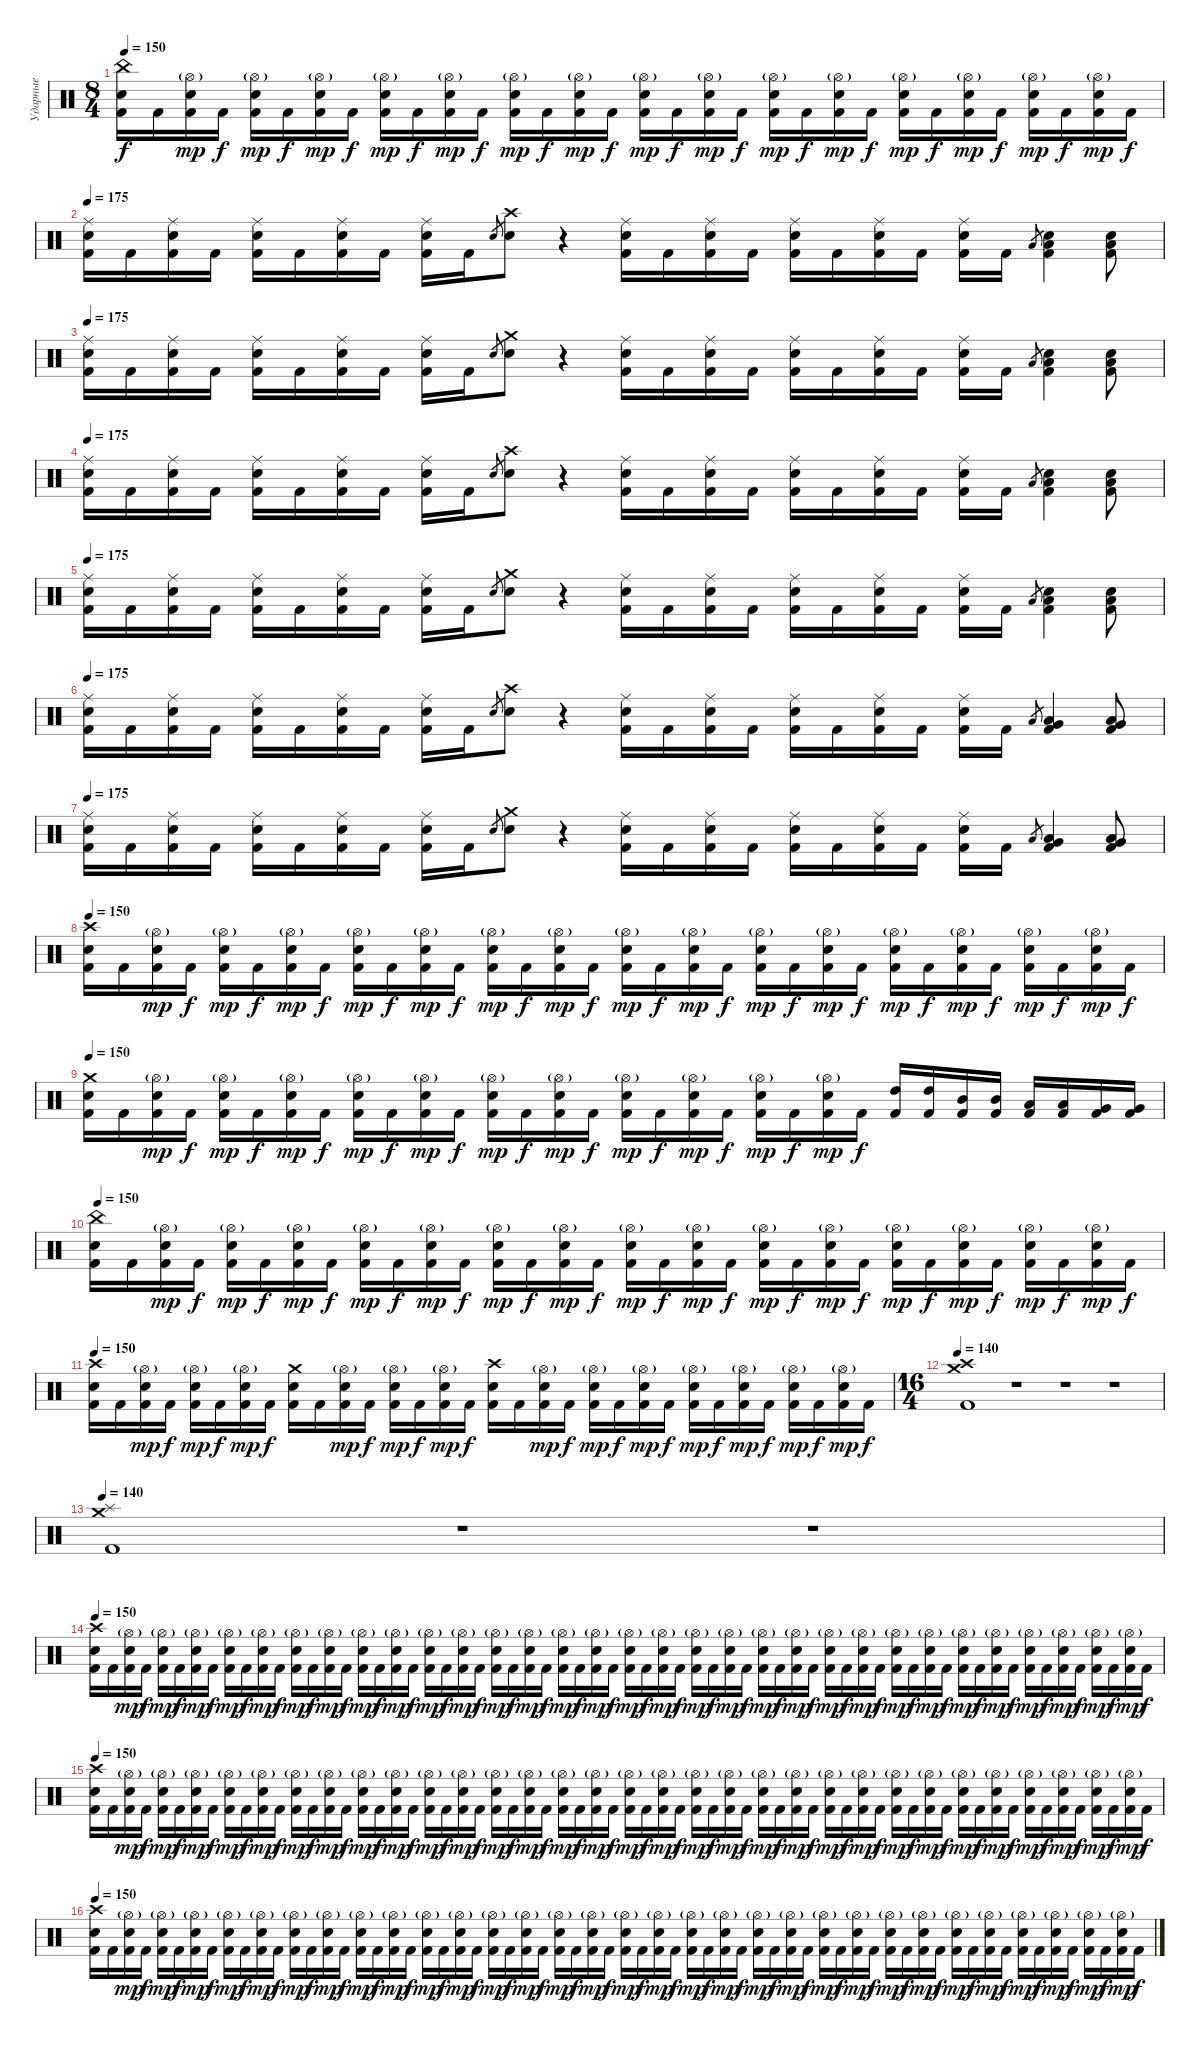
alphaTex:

\track ("Ударные" "Ударные") {instrument percussion}
\staff {score}
\articulation defaults
\ts (8 4)
\tempo 150
\clef neutral
\ks c
("China (hit)" "Electric Snare (hit)" "Kick (hit) 2").16{dy f} "Kick (hit) 2".16 ("Hi-Hat (open)"{g} "Electric Snare (hit)" "Kick (hit) 2").16{dy mp} "Kick (hit) 2".16{dy f} ("Hi-Hat (open)"{g} "Electric Snare (hit)" "Kick (hit) 2").16{dy mp} "Kick (hit) 2".16{dy f} ("Hi-Hat (open)"{g} "Electric Snare (hit)" "Kick (hit) 2").16{dy mp} "Kick (hit) 2".16{dy f} ("Hi-Hat (open)"{g} "Electric Snare (hit)" "Kick (hit) 2").16{dy mp} "Kick (hit) 2".16{dy f} ("Hi-Hat (open)"{g} "Electric Snare (hit)" "Kick (hit) 2").16{dy mp} "Kick (hit) 2".16{dy f} ("Hi-Hat (open)"{g} "Electric Snare (hit)" "Kick (hit) 2").16{dy mp} "Kick (hit) 2".16{dy f} ("Hi-Hat (open)"{g} "Electric Snare (hit)" "Kick (hit) 2").16{dy mp} "Kick (hit) 2".16{dy f} ("Hi-Hat (open)"{g} "Electric Snare (hit)" "Kick (hit) 2").16{dy mp} "Kick (hit) 2".16{dy f} ("Hi-Hat (open)"{g} "Electric Snare (hit)" "Kick (hit) 2").16{dy mp} "Kick (hit) 2".16{dy f} ("Hi-Hat (open)"{g} "Electric Snare (hit)" "Kick (hit) 2").16{dy mp} "Kick (hit) 2".16{dy f} ("Hi-Hat (open)"{g} "Electric Snare (hit)" "Kick (hit) 2").16{dy mp} "Kick (hit) 2".16{dy f} ("Hi-Hat (open)"{g} "Electric Snare (hit)" "Kick (hit) 2").16{dy mp} "Kick (hit) 2".16{dy f} ("Hi-Hat (open)"{g} "Electric Snare (hit)" "Kick (hit) 2").16{dy mp} "Kick (hit) 2".16{dy f} ("Hi-Hat (open)"{g} "Electric Snare (hit)" "Kick (hit) 2").16{dy mp} "Kick (hit) 2".16{dy f} ("Hi-Hat (open)"{g} "Electric Snare (hit)" "Kick (hit) 2").16{dy mp} "Kick (hit) 2".16{dy f} |
\tempo 175
("Electric Snare (hit)" "Ride (middle)" "Kick (hit) 2").16 "Kick (hit) 2".16 ("Electric Snare (hit)" "Ride (middle)" "Kick (hit) 2").16 "Kick (hit) 2".16 ("Electric Snare (hit)" "Ride (middle)" "Kick (hit) 2").16 "Kick (hit) 2".16 ("Electric Snare (hit)" "Ride (middle)" "Kick (hit) 2").16 "Kick (hit) 2".16 ("Electric Snare (hit)" "Ride (middle)" "Kick (hit) 2").16 "Kick (hit) 2".16 "Electric Snare (hit)".8{gr} ("Crash high (hit)" "Electric Snare (hit)").8 r.4 ("Electric Snare (hit)" "Ride (middle)" "Kick (hit) 2").16 "Kick (hit) 2".16 ("Electric Snare (hit)" "Ride (middle)" "Kick (hit) 2").16 "Kick (hit) 2".16 ("Electric Snare (hit)" "Ride (middle)" "Kick (hit) 2").16 "Kick (hit) 2".16 ("Electric Snare (hit)" "Ride (middle)" "Kick (hit) 2").16 "Kick (hit) 2".16 ("Electric Snare (hit)" "Ride (middle)" "Kick (hit) 2").16 "Kick (hit) 2".16 "Low Tom (hit)".8{gr} ("Electric Snare (hit)" "Low Tom (hit)" "Kick (hit) 2").4 ("Electric Snare (hit)" "Low Tom (hit)" "Kick (hit) 2").8 |
\tempo 175
("Electric Snare (hit)" "Ride (middle)" "Kick (hit) 2").16 "Kick (hit) 2".16 ("Electric Snare (hit)" "Ride (middle)" "Kick (hit) 2").16 "Kick (hit) 2".16 ("Electric Snare (hit)" "Ride (middle)" "Kick (hit) 2").16 "Kick (hit) 2".16 ("Electric Snare (hit)" "Ride (middle)" "Kick (hit) 2").16 "Kick (hit) 2".16 ("Electric Snare (hit)" "Ride (middle)" "Kick (hit) 2").16 "Kick (hit) 2".16 "Electric Snare (hit)".8{gr} ("Crash medium (hit)" "Electric Snare (hit)").8 r.4 ("Electric Snare (hit)" "Ride (middle)" "Kick (hit) 2").16 "Kick (hit) 2".16 ("Electric Snare (hit)" "Ride (middle)" "Kick (hit) 2").16 "Kick (hit) 2".16 ("Electric Snare (hit)" "Ride (middle)" "Kick (hit) 2").16 "Kick (hit) 2".16 ("Electric Snare (hit)" "Ride (middle)" "Kick (hit) 2").16 "Kick (hit) 2".16 ("Electric Snare (hit)" "Ride (middle)" "Kick (hit) 2").16 "Kick (hit) 2".16 "Low Tom (hit)".8{gr} ("Electric Snare (hit)" "Low Tom (hit)" "Kick (hit) 2").4 ("Electric Snare (hit)" "Low Tom (hit)" "Kick (hit) 2").8 |
\tempo 175
("Electric Snare (hit)" "Ride (middle)" "Kick (hit) 2").16 "Kick (hit) 2".16 ("Electric Snare (hit)" "Ride (middle)" "Kick (hit) 2").16 "Kick (hit) 2".16 ("Electric Snare (hit)" "Ride (middle)" "Kick (hit) 2").16 "Kick (hit) 2".16 ("Electric Snare (hit)" "Ride (middle)" "Kick (hit) 2").16 "Kick (hit) 2".16 ("Electric Snare (hit)" "Ride (middle)" "Kick (hit) 2").16 "Kick (hit) 2".16 "Electric Snare (hit)".8{gr} ("Crash high (hit)" "Electric Snare (hit)").8 r.4 ("Electric Snare (hit)" "Ride (middle)" "Kick (hit) 2").16 "Kick (hit) 2".16 ("Electric Snare (hit)" "Ride (middle)" "Kick (hit) 2").16 "Kick (hit) 2".16 ("Electric Snare (hit)" "Ride (middle)" "Kick (hit) 2").16 "Kick (hit) 2".16 ("Electric Snare (hit)" "Ride (middle)" "Kick (hit) 2").16 "Kick (hit) 2".16 ("Electric Snare (hit)" "Ride (middle)" "Kick (hit) 2").16 "Kick (hit) 2".16 "Low Tom (hit)".8{gr} ("Electric Snare (hit)" "Low Tom (hit)" "Kick (hit) 2").4 ("Electric Snare (hit)" "Low Tom (hit)" "Kick (hit) 2").8 |
\tempo 175
("Electric Snare (hit)" "Ride (middle)" "Kick (hit) 2").16 "Kick (hit) 2".16 ("Electric Snare (hit)" "Ride (middle)" "Kick (hit) 2").16 "Kick (hit) 2".16 ("Electric Snare (hit)" "Ride (middle)" "Kick (hit) 2").16 "Kick (hit) 2".16 ("Electric Snare (hit)" "Ride (middle)" "Kick (hit) 2").16 "Kick (hit) 2".16 ("Electric Snare (hit)" "Ride (middle)" "Kick (hit) 2").16 "Kick (hit) 2".16 "Electric Snare (hit)".8{gr} ("Crash medium (hit)" "Electric Snare (hit)").8 r.4 ("Electric Snare (hit)" "Ride (middle)" "Kick (hit) 2").16 "Kick (hit) 2".16 ("Electric Snare (hit)" "Ride (middle)" "Kick (hit) 2").16 "Kick (hit) 2".16 ("Electric Snare (hit)" "Ride (middle)" "Kick (hit) 2").16 "Kick (hit) 2".16 ("Electric Snare (hit)" "Ride (middle)" "Kick (hit) 2").16 "Kick (hit) 2".16 ("Electric Snare (hit)" "Ride (middle)" "Kick (hit) 2").16 "Kick (hit) 2".16 "Low Tom (hit)".8{gr} ("Electric Snare (hit)" "Low Tom (hit)" "Kick (hit) 2").4 ("Electric Snare (hit)" "Low Tom (hit)" "Kick (hit) 2").8 |
\tempo 175
("Electric Snare (hit)" "Ride (middle)" "Kick (hit) 2").16 "Kick (hit) 2".16 ("Electric Snare (hit)" "Ride (middle)" "Kick (hit) 2").16 "Kick (hit) 2".16 ("Electric Snare (hit)" "Ride (middle)" "Kick (hit) 2").16 "Kick (hit) 2".16 ("Electric Snare (hit)" "Ride (middle)" "Kick (hit) 2").16 "Kick (hit) 2".16 ("Electric Snare (hit)" "Ride (middle)" "Kick (hit) 2").16 "Kick (hit) 2".16 "Electric Snare (hit)".8{gr} ("Crash high (hit)" "Electric Snare (hit)").8 r.4 ("Electric Snare (hit)" "Ride (middle)" "Kick (hit) 2").16 "Kick (hit) 2".16 ("Electric Snare (hit)" "Ride (middle)" "Kick (hit) 2").16 "Kick (hit) 2".16 ("Electric Snare (hit)" "Ride (middle)" "Kick (hit) 2").16 "Kick (hit) 2".16 ("Electric Snare (hit)" "Ride (middle)" "Kick (hit) 2").16 "Kick (hit) 2".16 ("Electric Snare (hit)" "Ride (middle)" "Kick (hit) 2").16 "Kick (hit) 2".16 "Low Tom (hit)".8{gr} ("Very Low Tom (hit)" "Low Tom (hit)" "Kick (hit) 2").4 ("Very Low Tom (hit)" "Low Tom (hit)" "Kick (hit) 2").8 |
\tempo 175
("Electric Snare (hit)" "Ride (middle)" "Kick (hit) 2").16 "Kick (hit) 2".16 ("Electric Snare (hit)" "Ride (middle)" "Kick (hit) 2").16 "Kick (hit) 2".16 ("Electric Snare (hit)" "Ride (middle)" "Kick (hit) 2").16 "Kick (hit) 2".16 ("Electric Snare (hit)" "Ride (middle)" "Kick (hit) 2").16 "Kick (hit) 2".16 ("Electric Snare (hit)" "Ride (middle)" "Kick (hit) 2").16 "Kick (hit) 2".16 "Electric Snare (hit)".8{gr} ("Crash medium (hit)" "Electric Snare (hit)").8 r.4 ("Electric Snare (hit)" "Ride (middle)" "Kick (hit) 2").16 "Kick (hit) 2".16 ("Electric Snare (hit)" "Ride (middle)" "Kick (hit) 2").16 "Kick (hit) 2".16 ("Electric Snare (hit)" "Ride (middle)" "Kick (hit) 2").16 "Kick (hit) 2".16 ("Electric Snare (hit)" "Ride (middle)" "Kick (hit) 2").16 "Kick (hit) 2".16 ("Electric Snare (hit)" "Ride (middle)" "Kick (hit) 2").16 "Kick (hit) 2".16 "Low Tom (hit)".8{gr} ("Very Low Tom (hit)" "Low Tom (hit)" "Kick (hit) 2").4 ("Very Low Tom (hit)" "Low Tom (hit)" "Kick (hit) 2").8 |
\tempo 150
("Crash high (hit)" "Electric Snare (hit)" "Kick (hit) 2").16 "Kick (hit) 2".16 ("Hi-Hat (open)"{g} "Electric Snare (hit)" "Kick (hit) 2").16{dy mp} "Kick (hit) 2".16{dy f} ("Hi-Hat (open)"{g} "Electric Snare (hit)" "Kick (hit) 2").16{dy mp} "Kick (hit) 2".16{dy f} ("Hi-Hat (open)"{g} "Electric Snare (hit)" "Kick (hit) 2").16{dy mp} "Kick (hit) 2".16{dy f} ("Hi-Hat (open)"{g} "Electric Snare (hit)" "Kick (hit) 2").16{dy mp} "Kick (hit) 2".16{dy f} ("Hi-Hat (open)"{g} "Electric Snare (hit)" "Kick (hit) 2").16{dy mp} "Kick (hit) 2".16{dy f} ("Hi-Hat (open)"{g} "Electric Snare (hit)" "Kick (hit) 2").16{dy mp} "Kick (hit) 2".16{dy f} ("Hi-Hat (open)"{g} "Electric Snare (hit)" "Kick (hit) 2").16{dy mp} "Kick (hit) 2".16{dy f} ("Hi-Hat (open)"{g} "Electric Snare (hit)" "Kick (hit) 2").16{dy mp} "Kick (hit) 2".16{dy f} ("Hi-Hat (open)"{g} "Electric Snare (hit)" "Kick (hit) 2").16{dy mp} "Kick (hit) 2".16{dy f} ("Hi-Hat (open)"{g} "Electric Snare (hit)" "Kick (hit) 2").16{dy mp} "Kick (hit) 2".16{dy f} ("Hi-Hat (open)"{g} "Electric Snare (hit)" "Kick (hit) 2").16{dy mp} "Kick (hit) 2".16{dy f} ("Hi-Hat (open)"{g} "Electric Snare (hit)" "Kick (hit) 2").16{dy mp} "Kick (hit) 2".16{dy f} ("Hi-Hat (open)"{g} "Electric Snare (hit)" "Kick (hit) 2").16{dy mp} "Kick (hit) 2".16{dy f} ("Hi-Hat (open)"{g} "Electric Snare (hit)" "Kick (hit) 2").16{dy mp} "Kick (hit) 2".16{dy f} ("Hi-Hat (open)"{g} "Electric Snare (hit)" "Kick (hit) 2").16{dy mp} "Kick (hit) 2".16{dy f} |
\tempo 150
("Crash medium (hit)" "Electric Snare (hit)" "Kick (hit) 2").16 "Kick (hit) 2".16 ("Hi-Hat (open)"{g} "Electric Snare (hit)" "Kick (hit) 2").16{dy mp} "Kick (hit) 2".16{dy f} ("Hi-Hat (open)"{g} "Electric Snare (hit)" "Kick (hit) 2").16{dy mp} "Kick (hit) 2".16{dy f} ("Hi-Hat (open)"{g} "Electric Snare (hit)" "Kick (hit) 2").16{dy mp} "Kick (hit) 2".16{dy f} ("Hi-Hat (open)"{g} "Electric Snare (hit)" "Kick (hit) 2").16{dy mp} "Kick (hit) 2".16{dy f} ("Hi-Hat (open)"{g} "Electric Snare (hit)" "Kick (hit) 2").16{dy mp} "Kick (hit) 2".16{dy f} ("Hi-Hat (open)"{g} "Electric Snare (hit)" "Kick (hit) 2").16{dy mp} "Kick (hit) 2".16{dy f} ("Hi-Hat (open)"{g} "Electric Snare (hit)" "Kick (hit) 2").16{dy mp} "Kick (hit) 2".16{dy f} ("Hi-Hat (open)"{g} "Electric Snare (hit)" "Kick (hit) 2").16{dy mp} "Kick (hit) 2".16{dy f} ("Hi-Hat (open)"{g} "Electric Snare (hit)" "Kick (hit) 2").16{dy mp} "Kick (hit) 2".16{dy f} ("Hi-Hat (open)"{g} "Electric Snare (hit)" "Kick (hit) 2").16{dy mp} "Kick (hit) 2".16{dy f} ("Hi-Hat (open)"{g} "Electric Snare (hit)" "Kick (hit) 2").16{dy mp} "Kick (hit) 2".16{dy f} ("High Tom (hit)" "Kick (hit) 2").16 ("High Tom (hit)" "Kick (hit) 2").16 ("Mid Tom (hit)" "Kick (hit) 2").16 ("Mid Tom (hit)" "Kick (hit) 2").16 ("Low Tom (hit)" "Kick (hit) 2").16 ("Low Tom (hit)" "Kick (hit) 2").16 ("Very Low Tom (hit)" "Kick (hit) 2").16 ("Very Low Tom (hit)" "Kick (hit) 2").16 |
\tempo 150
("China (hit)" "Electric Snare (hit)" "Kick (hit) 2").16 "Kick (hit) 2".16 ("Hi-Hat (open)"{g} "Electric Snare (hit)" "Kick (hit) 2").16{dy mp} "Kick (hit) 2".16{dy f} ("Hi-Hat (open)"{g} "Electric Snare (hit)" "Kick (hit) 2").16{dy mp} "Kick (hit) 2".16{dy f} ("Hi-Hat (open)"{g} "Electric Snare (hit)" "Kick (hit) 2").16{dy mp} "Kick (hit) 2".16{dy f} ("Hi-Hat (open)"{g} "Electric Snare (hit)" "Kick (hit) 2").16{dy mp} "Kick (hit) 2".16{dy f} ("Hi-Hat (open)"{g} "Electric Snare (hit)" "Kick (hit) 2").16{dy mp} "Kick (hit) 2".16{dy f} ("Hi-Hat (open)"{g} "Electric Snare (hit)" "Kick (hit) 2").16{dy mp} "Kick (hit) 2".16{dy f} ("Hi-Hat (open)"{g} "Electric Snare (hit)" "Kick (hit) 2").16{dy mp} "Kick (hit) 2".16{dy f} ("Hi-Hat (open)"{g} "Electric Snare (hit)" "Kick (hit) 2").16{dy mp} "Kick (hit) 2".16{dy f} ("Hi-Hat (open)"{g} "Electric Snare (hit)" "Kick (hit) 2").16{dy mp} "Kick (hit) 2".16{dy f} ("Hi-Hat (open)"{g} "Electric Snare (hit)" "Kick (hit) 2").16{dy mp} "Kick (hit) 2".16{dy f} ("Hi-Hat (open)"{g} "Electric Snare (hit)" "Kick (hit) 2").16{dy mp} "Kick (hit) 2".16{dy f} ("Hi-Hat (open)"{g} "Electric Snare (hit)" "Kick (hit) 2").16{dy mp} "Kick (hit) 2".16{dy f} ("Hi-Hat (open)"{g} "Electric Snare (hit)" "Kick (hit) 2").16{dy mp} "Kick (hit) 2".16{dy f} ("Hi-Hat (open)"{g} "Electric Snare (hit)" "Kick (hit) 2").16{dy mp} "Kick (hit) 2".16{dy f} ("Hi-Hat (open)"{g} "Electric Snare (hit)" "Kick (hit) 2").16{dy mp} "Kick (hit) 2".16{dy f} |
\tempo 150
("Crash high (hit)" "Electric Snare (hit)" "Kick (hit) 2").16 "Kick (hit) 2".16 ("Hi-Hat (open)"{g} "Electric Snare (hit)" "Kick (hit) 2").16{dy mp} "Kick (hit) 2".16{dy f} ("Hi-Hat (open)"{g} "Electric Snare (hit)" "Kick (hit) 2").16{dy mp} "Kick (hit) 2".16{dy f} ("Hi-Hat (open)"{g} "Electric Snare (hit)" "Kick (hit) 2").16{dy mp} "Kick (hit) 2".16{dy f} ("Crash medium (hit)" "Electric Snare (hit)" "Kick (hit) 2").16 "Kick (hit) 2".16 ("Hi-Hat (open)"{g} "Electric Snare (hit)" "Kick (hit) 2").16{dy mp} "Kick (hit) 2".16{dy f} ("Hi-Hat (open)"{g} "Electric Snare (hit)" "Kick (hit) 2").16{dy mp} "Kick (hit) 2".16{dy f} ("Hi-Hat (open)"{g} "Electric Snare (hit)" "Kick (hit) 2").16{dy mp} "Kick (hit) 2".16{dy f} ("Crash high (hit)" "Electric Snare (hit)" "Kick (hit) 2").16 "Kick (hit) 2".16 ("Hi-Hat (open)"{g} "Electric Snare (hit)" "Kick (hit) 2").16{dy mp} "Kick (hit) 2".16{dy f} ("Hi-Hat (open)"{g} "Electric Snare (hit)" "Kick (hit) 2").16{dy mp} "Kick (hit) 2".16{dy f} ("Hi-Hat (open)"{g} "Electric Snare (hit)" "Kick (hit) 2").16{dy mp} "Kick (hit) 2".16{dy f} ("Hi-Hat (open)"{g} "Electric Snare (hit)" "Kick (hit) 2").16{dy mp} "Kick (hit) 2".16{dy f} ("Hi-Hat (open)"{g} "Electric Snare (hit)" "Kick (hit) 2").16{dy mp} "Kick (hit) 2".16{dy f} ("Hi-Hat (open)"{g} "Electric Snare (hit)" "Kick (hit) 2").16{dy mp} "Kick (hit) 2".16{dy f} ("Hi-Hat (open)"{g} "Electric Snare (hit)" "Kick (hit) 2").16{dy mp} "Kick (hit) 2".16{dy f} |
\ts (16 4)
\tempo 140
("Crash high (hit)" "Crash medium (hit)" "Kick (hit) 2").1 r.1 r.1 r.1 |
\tempo 140
("Splash (hit)" "Crash medium (hit)" "Kick (hit) 2").1 r.1 r.1 |
\tempo 150
("Electric Snare (hit)" "Crash high (hit)" "Kick (hit) 2").16 "Kick (hit) 2".16 ("Electric Snare (hit)" "Hi-Hat (open)"{g} "Kick (hit) 2").16{dy mp} "Kick (hit) 2".16{dy f} ("Electric Snare (hit)" "Hi-Hat (open)"{g} "Kick (hit) 2").16{dy mp} "Kick (hit) 2".16{dy f} ("Electric Snare (hit)" "Hi-Hat (open)"{g} "Kick (hit) 2").16{dy mp} "Kick (hit) 2".16{dy f} ("Electric Snare (hit)" "Hi-Hat (open)"{g} "Kick (hit) 2").16{dy mp} "Kick (hit) 2".16{dy f} ("Electric Snare (hit)" "Hi-Hat (open)"{g} "Kick (hit) 2").16{dy mp} "Kick (hit) 2".16{dy f} ("Electric Snare (hit)" "Hi-Hat (open)"{g} "Kick (hit) 2").16{dy mp} "Kick (hit) 2".16{dy f} ("Electric Snare (hit)" "Hi-Hat (open)"{g} "Kick (hit) 2").16{dy mp} "Kick (hit) 2".16{dy f} ("Electric Snare (hit)" "Hi-Hat (open)"{g} "Kick (hit) 2").16{dy mp} "Kick (hit) 2".16{dy f} ("Electric Snare (hit)" "Hi-Hat (open)"{g} "Kick (hit) 2").16{dy mp} "Kick (hit) 2".16{dy f} ("Electric Snare (hit)" "Hi-Hat (open)"{g} "Kick (hit) 2").16{dy mp} "Kick (hit) 2".16{dy f} ("Electric Snare (hit)" "Hi-Hat (open)"{g} "Kick (hit) 2").16{dy mp} "Kick (hit) 2".16{dy f} ("Electric Snare (hit)" "Hi-Hat (open)"{g} "Kick (hit) 2").16{dy mp} "Kick (hit) 2".16{dy f} ("Electric Snare (hit)" "Hi-Hat (open)"{g} "Kick (hit) 2").16{dy mp} "Kick (hit) 2".16{dy f} ("Electric Snare (hit)" "Hi-Hat (open)"{g} "Kick (hit) 2").16{dy mp} "Kick (hit) 2".16{dy f} ("Electric Snare (hit)" "Hi-Hat (open)"{g} "Kick (hit) 2").16{dy mp} "Kick (hit) 2".16{dy f} ("Electric Snare (hit)" "Hi-Hat (open)"{g} "Kick (hit) 2").16{dy mp} "Kick (hit) 2".16{dy f} ("Electric Snare (hit)" "Hi-Hat (open)"{g} "Kick (hit) 2").16{dy mp} "Kick (hit) 2".16{dy f} ("Electric Snare (hit)" "Hi-Hat (open)"{g} "Kick (hit) 2").16{dy mp} "Kick (hit) 2".16{dy f} ("Electric Snare (hit)" "Hi-Hat (open)"{g} "Kick (hit) 2").16{dy mp} "Kick (hit) 2".16{dy f} ("Electric Snare (hit)" "Hi-Hat (open)"{g} "Kick (hit) 2").16{dy mp} "Kick (hit) 2".16{dy f} ("Electric Snare (hit)" "Hi-Hat (open)"{g} "Kick (hit) 2").16{dy mp} "Kick (hit) 2".16{dy f} ("Electric Snare (hit)" "Hi-Hat (open)"{g} "Kick (hit) 2").16{dy mp} "Kick (hit) 2".16{dy f} ("Electric Snare (hit)" "Hi-Hat (open)"{g} "Kick (hit) 2").16{dy mp} "Kick (hit) 2".16{dy f} ("Electric Snare (hit)" "Hi-Hat (open)"{g} "Kick (hit) 2").16{dy mp} "Kick (hit) 2".16{dy f} ("Electric Snare (hit)" "Hi-Hat (open)"{g} "Kick (hit) 2").16{dy mp} "Kick (hit) 2".16{dy f} ("Electric Snare (hit)" "Hi-Hat (open)"{g} "Kick (hit) 2").16{dy mp} "Kick (hit) 2".16{dy f} ("Electric Snare (hit)" "Hi-Hat (open)"{g} "Kick (hit) 2").16{dy mp} "Kick (hit) 2".16{dy f} ("Electric Snare (hit)" "Hi-Hat (open)"{g} "Kick (hit) 2").16{dy mp} "Kick (hit) 2".16{dy f} ("Electric Snare (hit)" "Hi-Hat (open)"{g} "Kick (hit) 2").16{dy mp} "Kick (hit) 2".16{dy f} ("Electric Snare (hit)" "Hi-Hat (open)"{g} "Kick (hit) 2").16{dy mp} "Kick (hit) 2".16{dy f} ("Electric Snare (hit)" "Hi-Hat (open)"{g} "Kick (hit) 2").16{dy mp} "Kick (hit) 2".16{dy f} |
\tempo 150
("Electric Snare (hit)" "Crash high (hit)" "Kick (hit) 2").16 "Kick (hit) 2".16 ("Electric Snare (hit)" "Hi-Hat (open)"{g} "Kick (hit) 2").16{dy mp} "Kick (hit) 2".16{dy f} ("Electric Snare (hit)" "Hi-Hat (open)"{g} "Kick (hit) 2").16{dy mp} "Kick (hit) 2".16{dy f} ("Electric Snare (hit)" "Hi-Hat (open)"{g} "Kick (hit) 2").16{dy mp} "Kick (hit) 2".16{dy f} ("Electric Snare (hit)" "Hi-Hat (open)"{g} "Kick (hit) 2").16{dy mp} "Kick (hit) 2".16{dy f} ("Electric Snare (hit)" "Hi-Hat (open)"{g} "Kick (hit) 2").16{dy mp} "Kick (hit) 2".16{dy f} ("Electric Snare (hit)" "Hi-Hat (open)"{g} "Kick (hit) 2").16{dy mp} "Kick (hit) 2".16{dy f} ("Electric Snare (hit)" "Hi-Hat (open)"{g} "Kick (hit) 2").16{dy mp} "Kick (hit) 2".16{dy f} ("Electric Snare (hit)" "Hi-Hat (open)"{g} "Kick (hit) 2").16{dy mp} "Kick (hit) 2".16{dy f} ("Electric Snare (hit)" "Hi-Hat (open)"{g} "Kick (hit) 2").16{dy mp} "Kick (hit) 2".16{dy f} ("Electric Snare (hit)" "Hi-Hat (open)"{g} "Kick (hit) 2").16{dy mp} "Kick (hit) 2".16{dy f} ("Electric Snare (hit)" "Hi-Hat (open)"{g} "Kick (hit) 2").16{dy mp} "Kick (hit) 2".16{dy f} ("Electric Snare (hit)" "Hi-Hat (open)"{g} "Kick (hit) 2").16{dy mp} "Kick (hit) 2".16{dy f} ("Electric Snare (hit)" "Hi-Hat (open)"{g} "Kick (hit) 2").16{dy mp} "Kick (hit) 2".16{dy f} ("Electric Snare (hit)" "Hi-Hat (open)"{g} "Kick (hit) 2").16{dy mp} "Kick (hit) 2".16{dy f} ("Electric Snare (hit)" "Hi-Hat (open)"{g} "Kick (hit) 2").16{dy mp} "Kick (hit) 2".16{dy f} ("Electric Snare (hit)" "Hi-Hat (open)"{g} "Kick (hit) 2").16{dy mp} "Kick (hit) 2".16{dy f} ("Electric Snare (hit)" "Hi-Hat (open)"{g} "Kick (hit) 2").16{dy mp} "Kick (hit) 2".16{dy f} ("Electric Snare (hit)" "Hi-Hat (open)"{g} "Kick (hit) 2").16{dy mp} "Kick (hit) 2".16{dy f} ("Electric Snare (hit)" "Hi-Hat (open)"{g} "Kick (hit) 2").16{dy mp} "Kick (hit) 2".16{dy f} ("Electric Snare (hit)" "Hi-Hat (open)"{g} "Kick (hit) 2").16{dy mp} "Kick (hit) 2".16{dy f} ("Electric Snare (hit)" "Hi-Hat (open)"{g} "Kick (hit) 2").16{dy mp} "Kick (hit) 2".16{dy f} ("Electric Snare (hit)" "Hi-Hat (open)"{g} "Kick (hit) 2").16{dy mp} "Kick (hit) 2".16{dy f} ("Electric Snare (hit)" "Hi-Hat (open)"{g} "Kick (hit) 2").16{dy mp} "Kick (hit) 2".16{dy f} ("Electric Snare (hit)" "Hi-Hat (open)"{g} "Kick (hit) 2").16{dy mp} "Kick (hit) 2".16{dy f} ("Electric Snare (hit)" "Hi-Hat (open)"{g} "Kick (hit) 2").16{dy mp} "Kick (hit) 2".16{dy f} ("Electric Snare (hit)" "Hi-Hat (open)"{g} "Kick (hit) 2").16{dy mp} "Kick (hit) 2".16{dy f} ("Electric Snare (hit)" "Hi-Hat (open)"{g} "Kick (hit) 2").16{dy mp} "Kick (hit) 2".16{dy f} ("Electric Snare (hit)" "Hi-Hat (open)"{g} "Kick (hit) 2").16{dy mp} "Kick (hit) 2".16{dy f} ("Electric Snare (hit)" "Hi-Hat (open)"{g} "Kick (hit) 2").16{dy mp} "Kick (hit) 2".16{dy f} ("Electric Snare (hit)" "Hi-Hat (open)"{g} "Kick (hit) 2").16{dy mp} "Kick (hit) 2".16{dy f} ("Electric Snare (hit)" "Hi-Hat (open)"{g} "Kick (hit) 2").16{dy mp} "Kick (hit) 2".16{dy f} |
\tempo 150
("Electric Snare (hit)" "Crash high (hit)" "Kick (hit) 2").16 "Kick (hit) 2".16 ("Electric Snare (hit)" "Hi-Hat (open)"{g} "Kick (hit) 2").16{dy mp} "Kick (hit) 2".16{dy f} ("Electric Snare (hit)" "Hi-Hat (open)"{g} "Kick (hit) 2").16{dy mp} "Kick (hit) 2".16{dy f} ("Electric Snare (hit)" "Hi-Hat (open)"{g} "Kick (hit) 2").16{dy mp} "Kick (hit) 2".16{dy f} ("Electric Snare (hit)" "Hi-Hat (open)"{g} "Kick (hit) 2").16{dy mp} "Kick (hit) 2".16{dy f} ("Electric Snare (hit)" "Hi-Hat (open)"{g} "Kick (hit) 2").16{dy mp} "Kick (hit) 2".16{dy f} ("Electric Snare (hit)" "Hi-Hat (open)"{g} "Kick (hit) 2").16{dy mp} "Kick (hit) 2".16{dy f} ("Electric Snare (hit)" "Hi-Hat (open)"{g} "Kick (hit) 2").16{dy mp} "Kick (hit) 2".16{dy f} ("Electric Snare (hit)" "Hi-Hat (open)"{g} "Kick (hit) 2").16{dy mp} "Kick (hit) 2".16{dy f} ("Electric Snare (hit)" "Hi-Hat (open)"{g} "Kick (hit) 2").16{dy mp} "Kick (hit) 2".16{dy f} ("Electric Snare (hit)" "Hi-Hat (open)"{g} "Kick (hit) 2").16{dy mp} "Kick (hit) 2".16{dy f} ("Electric Snare (hit)" "Hi-Hat (open)"{g} "Kick (hit) 2").16{dy mp} "Kick (hit) 2".16{dy f} ("Electric Snare (hit)" "Hi-Hat (open)"{g} "Kick (hit) 2").16{dy mp} "Kick (hit) 2".16{dy f} ("Electric Snare (hit)" "Hi-Hat (open)"{g} "Kick (hit) 2").16{dy mp} "Kick (hit) 2".16{dy f} ("Electric Snare (hit)" "Hi-Hat (open)"{g} "Kick (hit) 2").16{dy mp} "Kick (hit) 2".16{dy f} ("Electric Snare (hit)" "Hi-Hat (open)"{g} "Kick (hit) 2").16{dy mp} "Kick (hit) 2".16{dy f} ("Electric Snare (hit)" "Hi-Hat (open)"{g} "Kick (hit) 2").16{dy mp} "Kick (hit) 2".16{dy f} ("Electric Snare (hit)" "Hi-Hat (open)"{g} "Kick (hit) 2").16{dy mp} "Kick (hit) 2".16{dy f} ("Electric Snare (hit)" "Hi-Hat (open)"{g} "Kick (hit) 2").16{dy mp} "Kick (hit) 2".16{dy f} ("Electric Snare (hit)" "Hi-Hat (open)"{g} "Kick (hit) 2").16{dy mp} "Kick (hit) 2".16{dy f} ("Electric Snare (hit)" "Hi-Hat (open)"{g} "Kick (hit) 2").16{dy mp} "Kick (hit) 2".16{dy f} ("Electric Snare (hit)" "Hi-Hat (open)"{g} "Kick (hit) 2").16{dy mp} "Kick (hit) 2".16{dy f} ("Electric Snare (hit)" "Hi-Hat (open)"{g} "Kick (hit) 2").16{dy mp} "Kick (hit) 2".16{dy f} ("Electric Snare (hit)" "Hi-Hat (open)"{g} "Kick (hit) 2").16{dy mp} "Kick (hit) 2".16{dy f} ("Electric Snare (hit)" "Hi-Hat (open)"{g} "Kick (hit) 2").16{dy mp} "Kick (hit) 2".16{dy f} ("Electric Snare (hit)" "Hi-Hat (open)"{g} "Kick (hit) 2").16{dy mp} "Kick (hit) 2".16{dy f} ("Electric Snare (hit)" "Hi-Hat (open)"{g} "Kick (hit) 2").16{dy mp} "Kick (hit) 2".16{dy f} ("Electric Snare (hit)" "Hi-Hat (open)"{g} "Kick (hit) 2").16{dy mp} "Kick (hit) 2".16{dy f} ("Electric Snare (hit)" "Hi-Hat (open)"{g} "Kick (hit) 2").16{dy mp} "Kick (hit) 2".16{dy f} ("Electric Snare (hit)" "Hi-Hat (open)"{g} "Kick (hit) 2").16{dy mp} "Kick (hit) 2".16{dy f} ("Electric Snare (hit)" "Hi-Hat (open)"{g} "Kick (hit) 2").16{dy mp} "Kick (hit) 2".16{dy f} ("Electric Snare (hit)" "Hi-Hat (open)"{g} "Kick (hit) 2").16{dy mp} "Kick (hit) 2".16{dy f}
